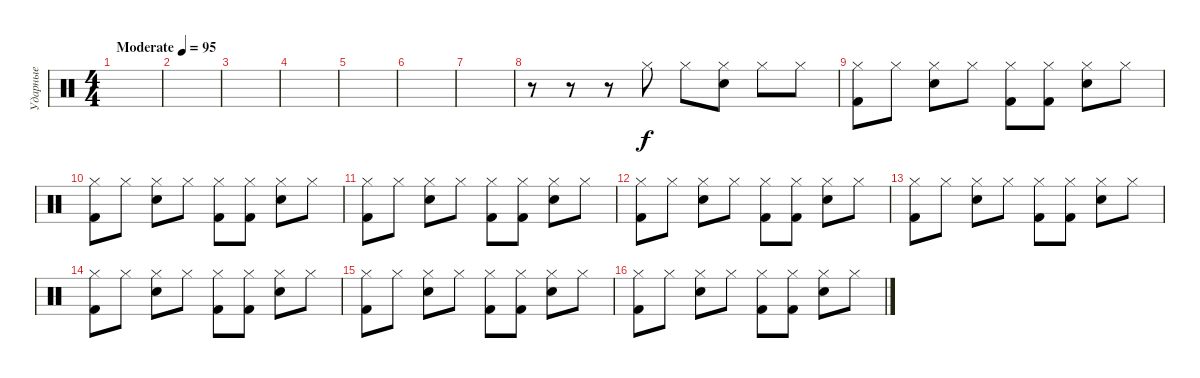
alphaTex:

\track ("Ударные" "Ударные") {instrument percussion}
\staff {score}
\articulation defaults
\ts (4 4)
\tempo (95 "Moderate")
\clef neutral
\ks c
|
|
|
|
|
|
|
r.8 r.8 r.8 "Hi-Hat (closed)".8 "Hi-Hat (closed)".8 ("Hi-Hat (closed)" "Snare (hit) 2").8 "Hi-Hat (closed)".8 "Hi-Hat (closed)".8 |
("Kick (hit) 2" "Hi-Hat (closed)").8 "Hi-Hat (closed)".8 ("Snare (hit) 2" "Hi-Hat (closed)").8 "Hi-Hat (closed)".8 ("Kick (hit) 2" "Hi-Hat (closed)").8 ("Kick (hit) 2" "Hi-Hat (closed)").8 ("Snare (hit) 2" "Hi-Hat (closed)").8 "Hi-Hat (closed)".8 |
("Kick (hit) 2" "Hi-Hat (closed)").8 "Hi-Hat (closed)".8 ("Snare (hit) 2" "Hi-Hat (closed)").8 "Hi-Hat (closed)".8 ("Kick (hit) 2" "Hi-Hat (closed)").8 ("Kick (hit) 2" "Hi-Hat (closed)").8 ("Snare (hit) 2" "Hi-Hat (closed)").8 "Hi-Hat (closed)".8 |
("Kick (hit) 2" "Hi-Hat (closed)").8 "Hi-Hat (closed)".8 ("Snare (hit) 2" "Hi-Hat (closed)").8 "Hi-Hat (closed)".8 ("Kick (hit) 2" "Hi-Hat (closed)").8 ("Kick (hit) 2" "Hi-Hat (closed)").8 ("Snare (hit) 2" "Hi-Hat (closed)").8 "Hi-Hat (closed)".8 |
("Kick (hit) 2" "Hi-Hat (closed)").8 "Hi-Hat (closed)".8 ("Snare (hit) 2" "Hi-Hat (closed)").8 "Hi-Hat (closed)".8 ("Kick (hit) 2" "Hi-Hat (closed)").8 ("Kick (hit) 2" "Hi-Hat (closed)").8 ("Snare (hit) 2" "Hi-Hat (closed)").8 "Hi-Hat (closed)".8 |
("Kick (hit) 2" "Hi-Hat (closed)").8 "Hi-Hat (closed)".8 ("Snare (hit) 2" "Hi-Hat (closed)").8 "Hi-Hat (closed)".8 ("Kick (hit) 2" "Hi-Hat (closed)").8 ("Kick (hit) 2" "Hi-Hat (closed)").8 ("Snare (hit) 2" "Hi-Hat (closed)").8 "Hi-Hat (closed)".8 |
("Kick (hit) 2" "Hi-Hat (closed)").8 "Hi-Hat (closed)".8 ("Snare (hit) 2" "Hi-Hat (closed)").8 "Hi-Hat (closed)".8 ("Kick (hit) 2" "Hi-Hat (closed)").8 ("Kick (hit) 2" "Hi-Hat (closed)").8 ("Snare (hit) 2" "Hi-Hat (closed)").8 "Hi-Hat (closed)".8 |
("Kick (hit) 2" "Hi-Hat (closed)").8 "Hi-Hat (closed)".8 ("Snare (hit) 2" "Hi-Hat (closed)").8 "Hi-Hat (closed)".8 ("Kick (hit) 2" "Hi-Hat (closed)").8 ("Kick (hit) 2" "Hi-Hat (closed)").8 ("Snare (hit) 2" "Hi-Hat (closed)").8 "Hi-Hat (closed)".8 |
("Kick (hit) 2" "Hi-Hat (closed)").8 "Hi-Hat (closed)".8 ("Snare (hit) 2" "Hi-Hat (closed)").8 "Hi-Hat (closed)".8 ("Kick (hit) 2" "Hi-Hat (closed)").8 ("Kick (hit) 2" "Hi-Hat (closed)").8 ("Snare (hit) 2" "Hi-Hat (closed)").8 "Hi-Hat (closed)".8
